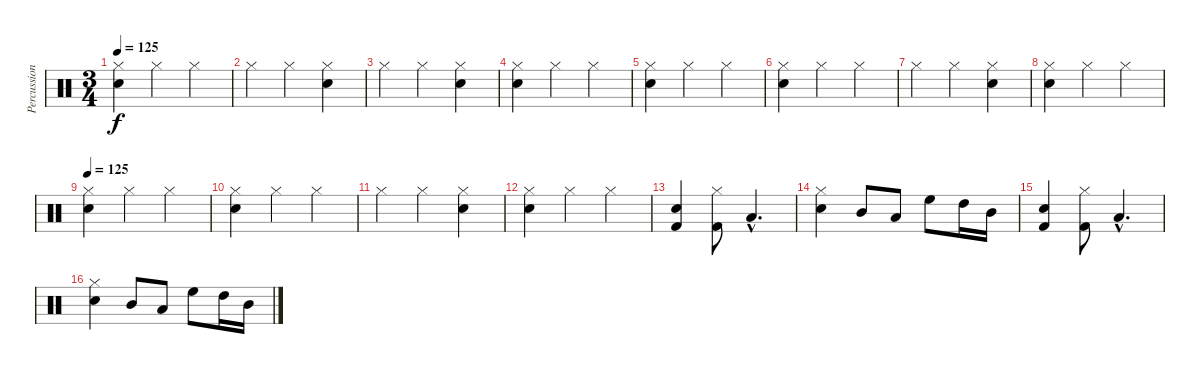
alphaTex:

\track ("Percussion" "Percussion") {instrument percussion}
\staff {score}
\articulation defaults
\ts (3 4)
\tempo 125
\clef neutral
\ks c
("Snare (hit) 2" "Hi-Hat (closed)").4{dy f} "Hi-Hat (closed)".4 "Hi-Hat (closed)".4 |
"Hi-Hat (closed)".4 "Hi-Hat (closed)".4 ("Snare (hit) 2" "Hi-Hat (closed)").4 |
"Hi-Hat (closed)".4 "Hi-Hat (closed)".4 ("Snare (hit) 2" "Hi-Hat (closed)").4 |
("Snare (hit) 2" "Hi-Hat (closed)").4 "Hi-Hat (closed)".4 "Hi-Hat (closed)".4 |
("Snare (hit) 2" "Hi-Hat (closed)").4 "Hi-Hat (closed)".4 "Hi-Hat (closed)".4 |
("Snare (hit) 2" "Hi-Hat (closed)").4 "Hi-Hat (closed)".4 "Hi-Hat (closed)".4 |
"Hi-Hat (closed)".4 "Hi-Hat (closed)".4 ("Snare (hit) 2" "Hi-Hat (closed)").4 |
("Snare (hit) 2" "Hi-Hat (closed)").4 "Hi-Hat (closed)".4 "Hi-Hat (closed)".4 |
\tempo 125
("Snare (hit) 2" "Hi-Hat (closed)").4 "Hi-Hat (closed)".4 "Hi-Hat (closed)".4 |
("Snare (hit) 2" "Hi-Hat (closed)").4 "Hi-Hat (closed)".4 "Hi-Hat (closed)".4 |
"Hi-Hat (closed)".4 "Hi-Hat (closed)".4 ("Snare (hit) 2" "Hi-Hat (closed)").4 |
("Snare (hit) 2" "Hi-Hat (closed)").4 "Hi-Hat (closed)".4 "Hi-Hat (closed)".4 |
("Kick (hit) 2" "Snare (hit) 2").4 ("Kick (hit) 2" "Hi-Hat (closed)").8 "Low Tom (hit)"{hac}.4{d} |
("Snare (hit) 2" "Hi-Hat (closed)").4 "Mid Tom (hit)".8 "Low Tom (hit)".8 "High Floor Tom (hit)".8 "High Tom (hit)".16 "Mid Tom (hit)".16 |
("Kick (hit) 2" "Snare (hit) 2").4 ("Kick (hit) 2" "Hi-Hat (closed)").8 "Low Tom (hit)"{hac}.4{d} |
("Snare (hit) 2" "Hi-Hat (closed)").4 "Mid Tom (hit)".8 "Low Tom (hit)".8 "High Floor Tom (hit)".8 "High Tom (hit)".16 "Mid Tom (hit)".16
